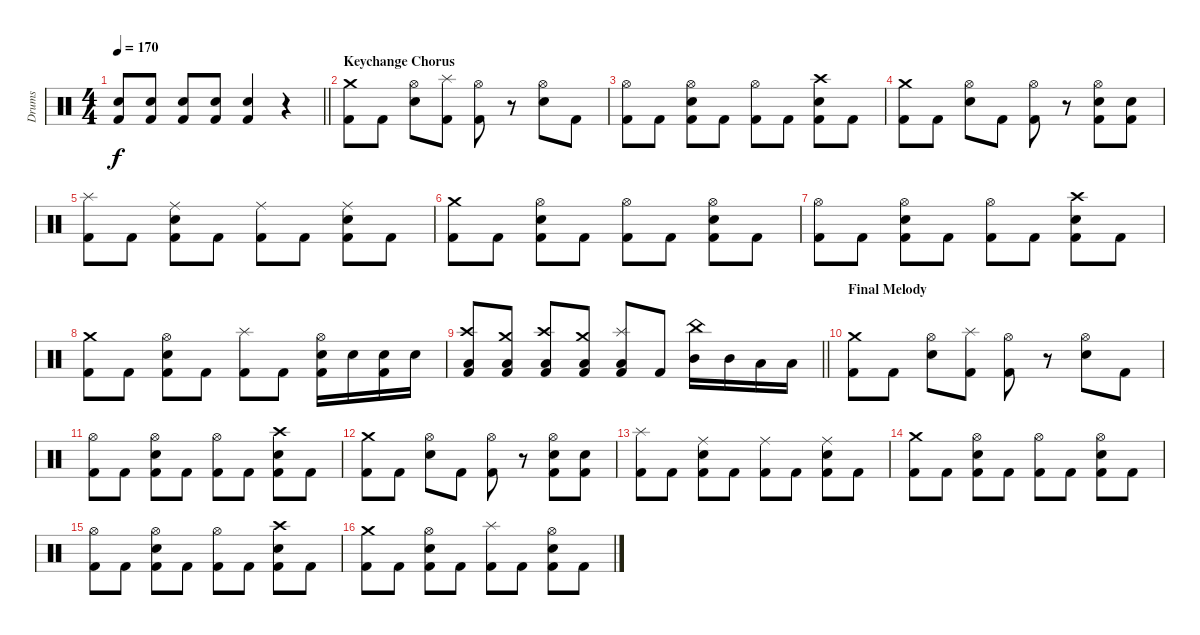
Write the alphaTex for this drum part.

\track ("Drums" "Drums") {instrument percussion}
\staff {score}
\articulation defaults
\ts (4 4)
\tempo 170
\clef neutral
\barLineRight lightlight
\ks c
("Snare (hit) 2" "Kick (hit) 2").8{dy f} ("Snare (hit) 2" "Kick (hit) 2").8 ("Snare (hit) 2" "Kick (hit) 2").8 ("Snare (hit) 2" "Kick (hit) 2").8 ("Snare (hit) 2" "Kick (hit) 2").4 r.4 |
\section ("" "Keychange Chorus")
("Crash medium (hit)" "Kick (hit) 2").8 "Kick (hit) 2".8 ("Hi-Hat (open)" "Snare (hit) 2").8 ("Splash (hit)" "Kick (hit) 2").8 ("Hi-Hat (open)" "Kick (hit) 2").8 r.8 ("Hi-Hat (open)" "Snare (hit) 2").8 "Kick (hit) 2".8 |
("Hi-Hat (open)" "Kick (hit) 2").8 "Kick (hit) 2".8 ("Hi-Hat (open)" "Snare (hit) 2" "Kick (hit) 2").8 "Kick (hit) 2".8 ("Hi-Hat (open)" "Kick (hit) 2").8 "Kick (hit) 2".8 ("Crash high (hit)" "Snare (hit) 2" "Kick (hit) 2").8 "Kick (hit) 2".8 |
("Crash medium (hit)" "Kick (hit) 2").8 "Kick (hit) 2".8 ("Hi-Hat (open)" "Snare (hit) 2").8 "Kick (hit) 2".8 ("Hi-Hat (open)" "Kick (hit) 2").8 r.8 ("Hi-Hat (open)" "Snare (hit) 2" "Kick (hit) 2").8 ("Snare (hit) 2" "Kick (hit) 2").8 |
("Splash (hit)" "Kick (hit) 2").8 "Kick (hit) 2".8 ("Ride (middle)" "Snare (hit) 2" "Kick (hit) 2").8 "Kick (hit) 2".8 ("Ride (middle)" "Kick (hit) 2").8 "Kick (hit) 2".8 ("Ride (middle)" "Snare (hit) 2" "Kick (hit) 2").8 "Kick (hit) 2".8 |
("Crash medium (hit)" "Kick (hit) 2").8 "Kick (hit) 2".8 ("Hi-Hat (open)" "Snare (hit) 2" "Kick (hit) 2").8 "Kick (hit) 2".8 ("Hi-Hat (open)" "Kick (hit) 2").8 "Kick (hit) 2".8 ("Hi-Hat (open)" "Snare (hit) 2" "Kick (hit) 2").8 "Kick (hit) 2".8 |
("Hi-Hat (open)" "Kick (hit) 2").8 "Kick (hit) 2".8 ("Hi-Hat (open)" "Snare (hit) 2" "Kick (hit) 2").8 "Kick (hit) 2".8 ("Hi-Hat (open)" "Kick (hit) 2").8 "Kick (hit) 2".8 ("Crash high (hit)" "Snare (hit) 2" "Kick (hit) 2").8 "Kick (hit) 2".8 |
("Crash medium (hit)" "Kick (hit) 2").8 "Kick (hit) 2".8 ("Hi-Hat (open)" "Snare (hit) 2" "Kick (hit) 2").8 "Kick (hit) 2".8 ("Splash (hit)" "Kick (hit) 2").8 "Kick (hit) 2".8 ("Hi-Hat (open)" "Snare (hit) 2" "Kick (hit) 2").16 "Snare (hit) 2".16 ("Snare (hit) 2" "Kick (hit) 2").16 "Snare (hit) 2".16 |
\barLineRight lightlight
("Crash high (hit)" "Low Floor Tom (hit)" "Kick (hit) 2").8 ("Crash medium (hit)" "Low Floor Tom (hit)" "Kick (hit) 2").8 ("Crash high (hit)" "Low Floor Tom (hit)" "Kick (hit) 2").8 ("Crash medium (hit)" "Low Floor Tom (hit)" "Kick (hit) 2").8 ("Splash (hit)" "Low Floor Tom (hit)" "Kick (hit) 2").8 "Kick (hit) 2".8 ("China (hit)" "Mid Tom (hit)").16 "Mid Tom (hit)".16 "Low Tom (hit)".16 "Low Tom (hit)".16 |
\section ("" "Final Melody")
("Crash medium (hit)" "Kick (hit) 2").8 "Kick (hit) 2".8 ("Hi-Hat (open)" "Snare (hit) 2").8 ("Splash (hit)" "Kick (hit) 2").8 ("Hi-Hat (open)" "Kick (hit) 2").8 r.8 ("Hi-Hat (open)" "Snare (hit) 2").8 "Kick (hit) 2".8 |
("Hi-Hat (open)" "Kick (hit) 2").8 "Kick (hit) 2".8 ("Hi-Hat (open)" "Snare (hit) 2" "Kick (hit) 2").8 "Kick (hit) 2".8 ("Hi-Hat (open)" "Kick (hit) 2").8 "Kick (hit) 2".8 ("Crash high (hit)" "Snare (hit) 2" "Kick (hit) 2").8 "Kick (hit) 2".8 |
("Crash medium (hit)" "Kick (hit) 2").8 "Kick (hit) 2".8 ("Hi-Hat (open)" "Snare (hit) 2").8 "Kick (hit) 2".8 ("Hi-Hat (open)" "Kick (hit) 2").8 r.8 ("Hi-Hat (open)" "Snare (hit) 2" "Kick (hit) 2").8 ("Snare (hit) 2" "Kick (hit) 2").8 |
("Splash (hit)" "Kick (hit) 2").8 "Kick (hit) 2".8 ("Ride (middle)" "Snare (hit) 2" "Kick (hit) 2").8 "Kick (hit) 2".8 ("Ride (middle)" "Kick (hit) 2").8 "Kick (hit) 2".8 ("Ride (middle)" "Snare (hit) 2" "Kick (hit) 2").8 "Kick (hit) 2".8 |
("Crash medium (hit)" "Kick (hit) 2").8 "Kick (hit) 2".8 ("Hi-Hat (open)" "Snare (hit) 2" "Kick (hit) 2").8 "Kick (hit) 2".8 ("Hi-Hat (open)" "Kick (hit) 2").8 "Kick (hit) 2".8 ("Hi-Hat (open)" "Snare (hit) 2" "Kick (hit) 2").8 "Kick (hit) 2".8 |
("Hi-Hat (open)" "Kick (hit) 2").8 "Kick (hit) 2".8 ("Hi-Hat (open)" "Snare (hit) 2" "Kick (hit) 2").8 "Kick (hit) 2".8 ("Hi-Hat (open)" "Kick (hit) 2").8 "Kick (hit) 2".8 ("Crash high (hit)" "Snare (hit) 2" "Kick (hit) 2").8 "Kick (hit) 2".8 |
("Crash medium (hit)" "Kick (hit) 2").8 "Kick (hit) 2".8 ("Hi-Hat (open)" "Snare (hit) 2" "Kick (hit) 2").8 "Kick (hit) 2".8 ("Splash (hit)" "Kick (hit) 2").8 "Kick (hit) 2".8 ("Hi-Hat (open)" "Snare (hit) 2" "Kick (hit) 2").8 "Kick (hit) 2".8
